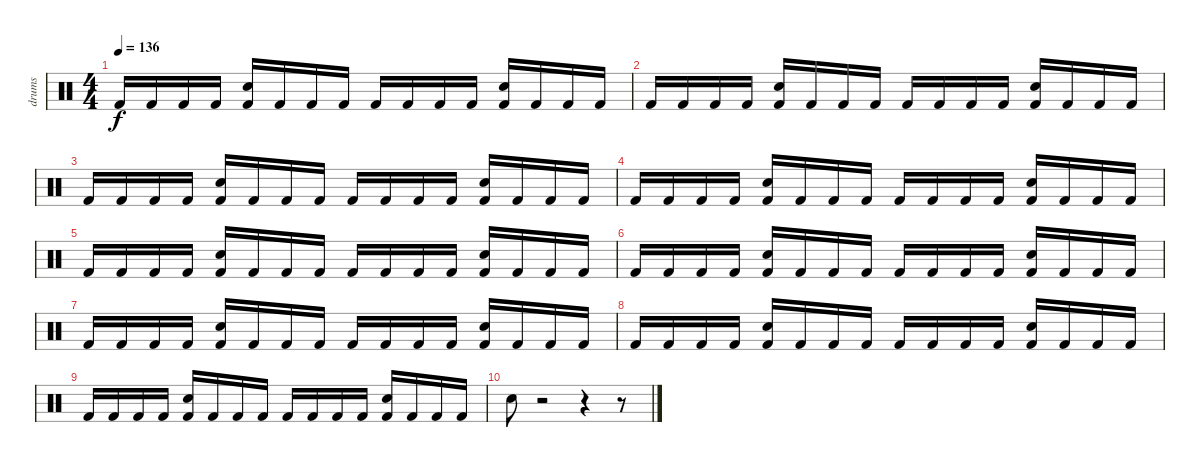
\track ("drums" "drums") {instrument percussion}
\staff {score}
\articulation defaults
\ts (4 4)
\tempo 136
\clef neutral
\ks c "Kick (hit) 2".16{dy f} "Kick (hit) 2".16 "Kick (hit) 2".16 "Kick (hit) 2".16
("Electric Snare (hit)" "Kick (hit) 2").16 "Kick (hit) 2".16 "Kick (hit) 2".16 "Kick (hit) 2".16 "Kick (hit) 2".16 "Kick (hit) 2".16 "Kick (hit) 2".16 "Kick (hit) 2".16 ("Electric Snare (hit)" "Kick (hit) 2").16 "Kick (hit) 2".16 "Kick (hit) 2".16 "Kick (hit) 2".16 |
"Kick (hit) 2".16 "Kick (hit) 2".16 "Kick (hit) 2".16 "Kick (hit) 2".16 ("Electric Snare (hit)" "Kick (hit) 2").16 "Kick (hit) 2".16 "Kick (hit) 2".16 "Kick (hit) 2".16 "Kick (hit) 2".16 "Kick (hit) 2".16 "Kick (hit) 2".16 "Kick (hit) 2".16 ("Electric Snare (hit)" "Kick (hit) 2").16 "Kick (hit) 2".16 "Kick (hit) 2".16 "Kick (hit) 2".16 |
"Kick (hit) 2".16 "Kick (hit) 2".16 "Kick (hit) 2".16 "Kick (hit) 2".16 ("Electric Snare (hit)" "Kick (hit) 2").16 "Kick (hit) 2".16 "Kick (hit) 2".16 "Kick (hit) 2".16 "Kick (hit) 2".16 "Kick (hit) 2".16 "Kick (hit) 2".16 "Kick (hit) 2".16 ("Electric Snare (hit)" "Kick (hit) 2").16 "Kick (hit) 2".16 "Kick (hit) 2".16 "Kick (hit) 2".16 |
"Kick (hit) 2".16 "Kick (hit) 2".16 "Kick (hit) 2".16 "Kick (hit) 2".16 ("Electric Snare (hit)" "Kick (hit) 2").16 "Kick (hit) 2".16 "Kick (hit) 2".16 "Kick (hit) 2".16 "Kick (hit) 2".16 "Kick (hit) 2".16 "Kick (hit) 2".16 "Kick (hit) 2".16 ("Electric Snare (hit)" "Kick (hit) 2").16 "Kick (hit) 2".16 "Kick (hit) 2".16 "Kick (hit) 2".16 |
"Kick (hit) 2".16 "Kick (hit) 2".16 "Kick (hit) 2".16 "Kick (hit) 2".16 ("Electric Snare (hit)" "Kick (hit) 2").16 "Kick (hit) 2".16 "Kick (hit) 2".16 "Kick (hit) 2".16 "Kick (hit) 2".16 "Kick (hit) 2".16 "Kick (hit) 2".16 "Kick (hit) 2".16 ("Electric Snare (hit)" "Kick (hit) 2").16 "Kick (hit) 2".16 "Kick (hit) 2".16 "Kick (hit) 2".16 |
"Kick (hit) 2".16 "Kick (hit) 2".16 "Kick (hit) 2".16 "Kick (hit) 2".16 ("Electric Snare (hit)" "Kick (hit) 2").16 "Kick (hit) 2".16 "Kick (hit) 2".16 "Kick (hit) 2".16 "Kick (hit) 2".16 "Kick (hit) 2".16 "Kick (hit) 2".16 "Kick (hit) 2".16 ("Electric Snare (hit)" "Kick (hit) 2").16 "Kick (hit) 2".16 "Kick (hit) 2".16 "Kick (hit) 2".16 |
"Kick (hit) 2".16 "Kick (hit) 2".16 "Kick (hit) 2".16 "Kick (hit) 2".16 ("Electric Snare (hit)" "Kick (hit) 2").16 "Kick (hit) 2".16 "Kick (hit) 2".16 "Kick (hit) 2".16 "Kick (hit) 2".16 "Kick (hit) 2".16 "Kick (hit) 2".16 "Kick (hit) 2".16 ("Electric Snare (hit)" "Kick (hit) 2").16 "Kick (hit) 2".16 "Kick (hit) 2".16 "Kick (hit) 2".16 |
"Kick (hit) 2".16 "Kick (hit) 2".16 "Kick (hit) 2".16 "Kick (hit) 2".16 ("Electric Snare (hit)" "Kick (hit) 2").16 "Kick (hit) 2".16 "Kick (hit) 2".16 "Kick (hit) 2".16 "Kick (hit) 2".16 "Kick (hit) 2".16 "Kick (hit) 2".16 "Kick (hit) 2".16 ("Electric Snare (hit)" "Kick (hit) 2").16 "Kick (hit) 2".16 "Kick (hit) 2".16 "Kick (hit) 2".16 |
"Kick (hit) 2".16 "Kick (hit) 2".16 "Kick (hit) 2".16 "Kick (hit) 2".16 ("Electric Snare (hit)" "Kick (hit) 2").16 "Kick (hit) 2".16 "Kick (hit) 2".16 "Kick (hit) 2".16 "Kick (hit) 2".16 "Kick (hit) 2".16 "Kick (hit) 2".16 "Kick (hit) 2".16 ("Electric Snare (hit)" "Kick (hit) 2").16 "Kick (hit) 2".16 "Kick (hit) 2".16 "Kick (hit) 2".16 |
"Electric Snare (hit)".8 r.2 r.4 r.8
